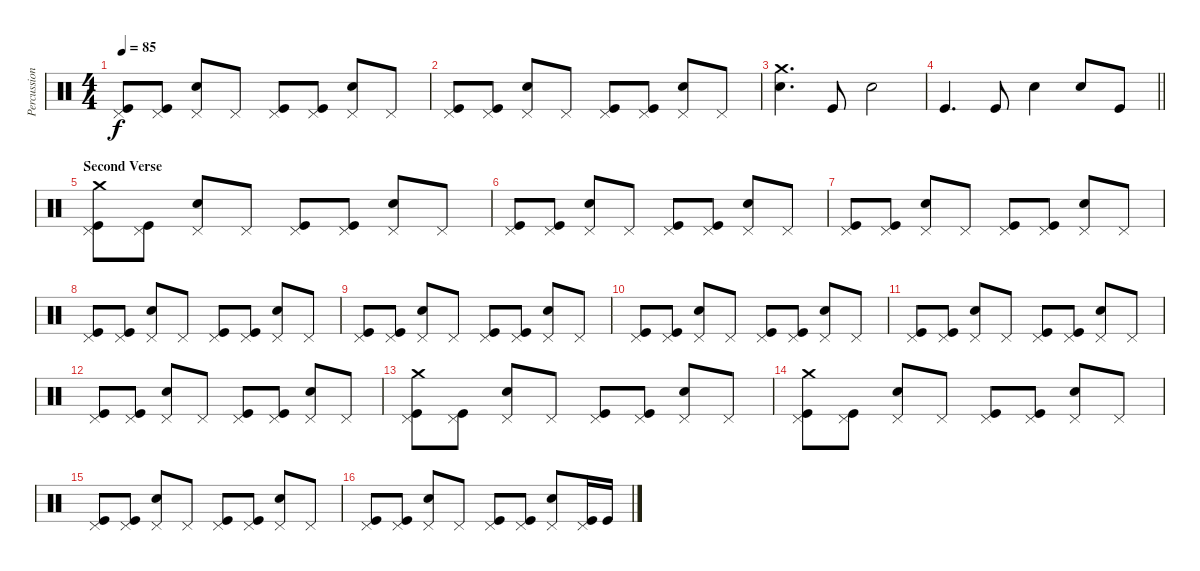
\track ("Percussion" "Percussion") {instrument percussion}
\staff {score}
\articulation defaults
\ts (4 4)
\tempo 85
\clef neutral
\ks c
("Pedal Hi-Hat (hit)" "Kick (hit)").8{dy f} ("Pedal Hi-Hat (hit)" "Kick (hit)").8 ("Pedal Hi-Hat (hit)" "Snare (hit) 2").8 "Pedal Hi-Hat (hit)".8 ("Pedal Hi-Hat (hit)" "Kick (hit)").8 ("Pedal Hi-Hat (hit)" "Kick (hit)").8 ("Pedal Hi-Hat (hit)" "Snare (hit) 2").8 "Pedal Hi-Hat (hit)".8 |
("Pedal Hi-Hat (hit)" "Kick (hit)").8 ("Pedal Hi-Hat (hit)" "Kick (hit)").8 ("Pedal Hi-Hat (hit)" "Snare (hit) 2").8 "Pedal Hi-Hat (hit)".8 ("Pedal Hi-Hat (hit)" "Kick (hit)").8 ("Pedal Hi-Hat (hit)" "Kick (hit)").8 ("Pedal Hi-Hat (hit)" "Snare (hit) 2").8 "Pedal Hi-Hat (hit)".8 |
("Snare (hit) 2" "Crash medium (hit)").4{d} "Kick (hit)".8 "Snare (hit) 2".2 |
\barLineRight lightlight "Kick (hit)".4{d} "Kick (hit)".8 "Snare (hit) 2".4 "Snare (hit) 2".8 "Kick (hit)".8
|
\section ("" "Second Verse")
("Pedal Hi-Hat (hit)" "Crash medium (hit)" "Kick (hit)").8 ("Pedal Hi-Hat (hit)" "Kick (hit)").8 ("Pedal Hi-Hat (hit)" "Snare (hit) 2").8 "Pedal Hi-Hat (hit)".8 ("Pedal Hi-Hat (hit)" "Kick (hit)").8 ("Pedal Hi-Hat (hit)" "Kick (hit)").8 ("Pedal Hi-Hat (hit)" "Snare (hit) 2").8 "Pedal Hi-Hat (hit)".8 |
("Pedal Hi-Hat (hit)" "Kick (hit)").8 ("Pedal Hi-Hat (hit)" "Kick (hit)").8 ("Pedal Hi-Hat (hit)" "Snare (hit) 2").8 "Pedal Hi-Hat (hit)".8 ("Pedal Hi-Hat (hit)" "Kick (hit)").8 ("Pedal Hi-Hat (hit)" "Kick (hit)").8 ("Pedal Hi-Hat (hit)" "Snare (hit) 2").8 "Pedal Hi-Hat (hit)".8 |
("Pedal Hi-Hat (hit)" "Kick (hit)").8 ("Pedal Hi-Hat (hit)" "Kick (hit)").8 ("Pedal Hi-Hat (hit)" "Snare (hit) 2").8 "Pedal Hi-Hat (hit)".8 ("Pedal Hi-Hat (hit)" "Kick (hit)").8 ("Pedal Hi-Hat (hit)" "Kick (hit)").8 ("Pedal Hi-Hat (hit)" "Snare (hit) 2").8 "Pedal Hi-Hat (hit)".8 |
("Pedal Hi-Hat (hit)" "Kick (hit)").8 ("Pedal Hi-Hat (hit)" "Kick (hit)").8 ("Pedal Hi-Hat (hit)" "Snare (hit) 2").8 "Pedal Hi-Hat (hit)".8 ("Pedal Hi-Hat (hit)" "Kick (hit)").8 ("Pedal Hi-Hat (hit)" "Kick (hit)").8 ("Pedal Hi-Hat (hit)" "Snare (hit) 2").8 "Pedal Hi-Hat (hit)".8 |
("Pedal Hi-Hat (hit)" "Kick (hit)").8 ("Pedal Hi-Hat (hit)" "Kick (hit)").8 ("Pedal Hi-Hat (hit)" "Snare (hit) 2").8 "Pedal Hi-Hat (hit)".8 ("Pedal Hi-Hat (hit)" "Kick (hit)").8 ("Pedal Hi-Hat (hit)" "Kick (hit)").8 ("Pedal Hi-Hat (hit)" "Snare (hit) 2").8 "Pedal Hi-Hat (hit)".8 |
("Pedal Hi-Hat (hit)" "Kick (hit)").8 ("Pedal Hi-Hat (hit)" "Kick (hit)").8 ("Pedal Hi-Hat (hit)" "Snare (hit) 2").8 "Pedal Hi-Hat (hit)".8 ("Pedal Hi-Hat (hit)" "Kick (hit)").8 ("Pedal Hi-Hat (hit)" "Kick (hit)").8 ("Pedal Hi-Hat (hit)" "Snare (hit) 2").8 "Pedal Hi-Hat (hit)".8 |
("Pedal Hi-Hat (hit)" "Kick (hit)").8 ("Pedal Hi-Hat (hit)" "Kick (hit)").8 ("Pedal Hi-Hat (hit)" "Snare (hit) 2").8 "Pedal Hi-Hat (hit)".8 ("Pedal Hi-Hat (hit)" "Kick (hit)").8 ("Pedal Hi-Hat (hit)" "Kick (hit)").8 ("Pedal Hi-Hat (hit)" "Snare (hit) 2").8 "Pedal Hi-Hat (hit)".8 |
("Pedal Hi-Hat (hit)" "Kick (hit)").8 ("Pedal Hi-Hat (hit)" "Kick (hit)").8 ("Pedal Hi-Hat (hit)" "Snare (hit) 2").8 "Pedal Hi-Hat (hit)".8 ("Pedal Hi-Hat (hit)" "Kick (hit)").8 ("Pedal Hi-Hat (hit)" "Kick (hit)").8 ("Pedal Hi-Hat (hit)" "Snare (hit) 2").8 "Pedal Hi-Hat (hit)".8 |
("Pedal Hi-Hat (hit)" "Crash medium (hit)" "Kick (hit)").8 ("Pedal Hi-Hat (hit)" "Kick (hit)").8 ("Pedal Hi-Hat (hit)" "Snare (hit) 2").8 "Pedal Hi-Hat (hit)".8 ("Pedal Hi-Hat (hit)" "Kick (hit)").8 ("Pedal Hi-Hat (hit)" "Kick (hit)").8 ("Pedal Hi-Hat (hit)" "Snare (hit) 2").8 "Pedal Hi-Hat (hit)".8 |
("Pedal Hi-Hat (hit)" "Crash medium (hit)" "Kick (hit)").8 ("Pedal Hi-Hat (hit)" "Kick (hit)").8 ("Pedal Hi-Hat (hit)" "Snare (hit) 2").8 "Pedal Hi-Hat (hit)".8 ("Pedal Hi-Hat (hit)" "Kick (hit)").8 ("Pedal Hi-Hat (hit)" "Kick (hit)").8 ("Pedal Hi-Hat (hit)" "Snare (hit) 2").8 "Pedal Hi-Hat (hit)".8 |
("Pedal Hi-Hat (hit)" "Kick (hit)").8 ("Pedal Hi-Hat (hit)" "Kick (hit)").8 ("Pedal Hi-Hat (hit)" "Snare (hit) 2").8 "Pedal Hi-Hat (hit)".8 ("Pedal Hi-Hat (hit)" "Kick (hit)").8 ("Pedal Hi-Hat (hit)" "Kick (hit)").8 ("Pedal Hi-Hat (hit)" "Snare (hit) 2").8 "Pedal Hi-Hat (hit)".8 |
("Pedal Hi-Hat (hit)" "Kick (hit)").8 ("Pedal Hi-Hat (hit)" "Kick (hit)").8 ("Pedal Hi-Hat (hit)" "Snare (hit) 2").8 "Pedal Hi-Hat (hit)".8 ("Pedal Hi-Hat (hit)" "Kick (hit)").8 ("Pedal Hi-Hat (hit)" "Kick (hit)").8 ("Pedal Hi-Hat (hit)" "Snare (hit) 2").8 ("Pedal Hi-Hat (hit)" "Kick (hit)").16 "Kick (hit)".16
